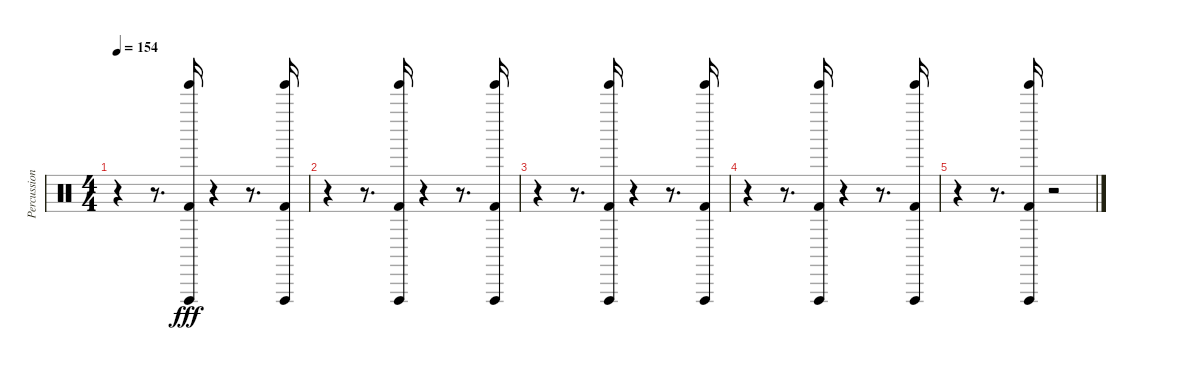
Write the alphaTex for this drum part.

\track ("Percussion" "Percussion") {instrument percussion}
\staff {score}
\articulation defaults
\ts (4 4)
\tempo 154
\clef neutral
\ks c
r.4{dy fff} r.8{d} ("Vibraslap (hit)" "Tinkle Bell (hit)" "Kick (hit) 2").16 r.4 r.8{d} ("Vibraslap (hit)" "Tinkle Bell (hit)" "Kick (hit) 2").16{volume 13} |
r.4 r.8{d} ("Vibraslap (hit)" "Tinkle Bell (hit)" "Kick (hit) 2").16 r.4 r.8{d} ("Vibraslap (hit)" "Tinkle Bell (hit)" "Kick (hit) 2").16 |
r.4 r.8{d} ("Vibraslap (hit)" "Tinkle Bell (hit)" "Kick (hit) 2").16 r.4 r.8{d} ("Vibraslap (hit)" "Tinkle Bell (hit)" "Kick (hit) 2").16 |
r.4 r.8{d} ("Vibraslap (hit)" "Tinkle Bell (hit)" "Kick (hit) 2").16 r.4 r.8{d} ("Vibraslap (hit)" "Tinkle Bell (hit)" "Kick (hit) 2").16 |
r.4 r.8{d} ("Vibraslap (hit)" "Tinkle Bell (hit)" "Kick (hit) 2").16 r.2
